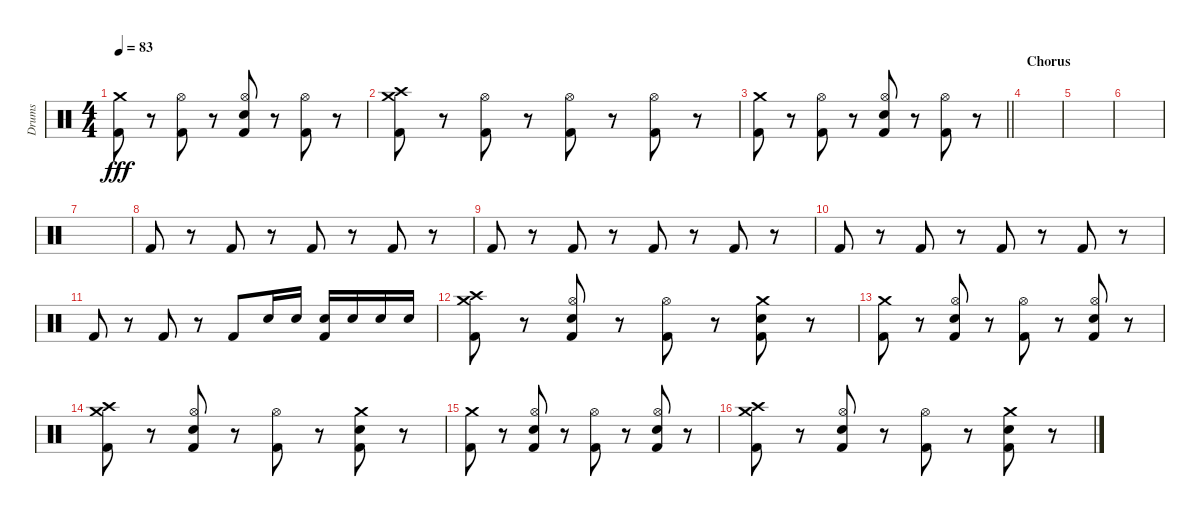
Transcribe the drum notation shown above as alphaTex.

\track ("Drums" "Drums") {instrument percussion}
\staff {score}
\articulation defaults
\ts (4 4)
\tempo 83
\clef neutral
\ks c
("Crash medium (hit)" "Kick (hit) 2").8{dy fff} r.8 ("Hi-Hat (open)" "Kick (hit) 2").8 r.8 ("Hi-Hat (open)" "Snare (hit) 2" "Kick (hit) 2").8 r.8 ("Hi-Hat (open)" "Kick (hit) 2").8 r.8 |
("Crash high (hit)" "Crash medium (hit)" "Kick (hit) 2").8 r.8 ("Hi-Hat (open)" "Kick (hit) 2").8 r.8 ("Hi-Hat (open)" "Kick (hit) 2").8 r.8 ("Hi-Hat (open)" "Kick (hit) 2").8 r.8 |
\barLineRight lightlight
("Crash medium (hit)" "Kick (hit) 2").8 r.8 ("Hi-Hat (open)" "Kick (hit) 2").8 r.8 ("Hi-Hat (open)" "Snare (hit) 2" "Kick (hit) 2").8 r.8 ("Hi-Hat (open)" "Kick (hit) 2").8 r.8 |
\section ("" "Chorus ")
|
|
|
|
"Kick (hit) 2".8 r.8 "Kick (hit) 2".8 r.8 "Kick (hit) 2".8 r.8 "Kick (hit) 2".8 r.8 |
"Kick (hit) 2".8 r.8 "Kick (hit) 2".8 r.8 "Kick (hit) 2".8 r.8 "Kick (hit) 2".8 r.8 |
"Kick (hit) 2".8 r.8 "Kick (hit) 2".8 r.8 "Kick (hit) 2".8 r.8 "Kick (hit) 2".8 r.8 |
"Kick (hit) 2".8 r.8 "Kick (hit) 2".8 r.8 "Kick (hit) 2".8 "Snare (hit) 2".16 "Snare (hit) 2".16 ("Snare (hit) 2" "Kick (hit) 2").16 "Snare (hit) 2".16 "Snare (hit) 2".16 "Snare (hit) 2".16 |
("Crash medium (hit)" "Crash high (hit)" "Kick (hit) 2").8 r.8 ("Hi-Hat (open)" "Snare (hit) 2" "Kick (hit) 2").8 r.8 ("Hi-Hat (open)" "Kick (hit) 2").8 r.8 ("Crash medium (hit)" "Snare (hit) 2" "Kick (hit) 2").8 r.8 |
("Crash medium (hit)" "Kick (hit) 2").8 r.8 ("Hi-Hat (open)" "Snare (hit) 2" "Kick (hit) 2").8 r.8 ("Hi-Hat (open)" "Kick (hit) 2").8 r.8 ("Hi-Hat (open)" "Snare (hit) 2" "Kick (hit) 2").8 r.8 |
("Crash medium (hit)" "Crash high (hit)" "Kick (hit) 2").8 r.8 ("Hi-Hat (open)" "Snare (hit) 2" "Kick (hit) 2").8 r.8 ("Hi-Hat (open)" "Kick (hit) 2").8 r.8 ("Crash medium (hit)" "Snare (hit) 2" "Kick (hit) 2").8 r.8 |
("Crash medium (hit)" "Kick (hit) 2").8 r.8 ("Hi-Hat (open)" "Snare (hit) 2" "Kick (hit) 2").8 r.8 ("Hi-Hat (open)" "Kick (hit) 2").8 r.8 ("Hi-Hat (open)" "Snare (hit) 2" "Kick (hit) 2").8 r.8 |
("Crash medium (hit)" "Crash high (hit)" "Kick (hit) 2").8 r.8 ("Hi-Hat (open)" "Snare (hit) 2" "Kick (hit) 2").8 r.8 ("Hi-Hat (open)" "Kick (hit) 2").8 r.8 ("Crash medium (hit)" "Snare (hit) 2" "Kick (hit) 2").8 r.8
